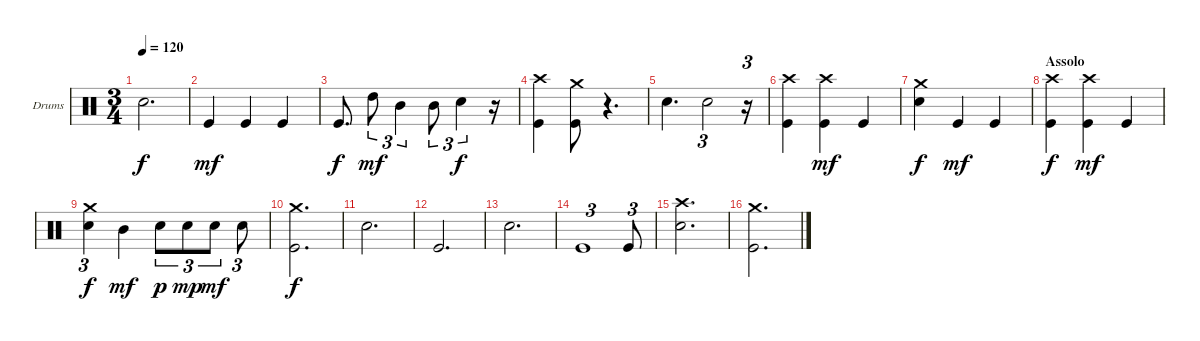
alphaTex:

\bracketExtendMode groupsimilarinstruments
\firstSystemTrackNameOrientation horizontal
\otherSystemsTrackNameOrientation horizontal
\track ("Drumkit" "Drums") {instrument percussion}
\staff {score}
\articulation defaults
\ts (3 4)
\tempo 120
\clef neutral
\ks c "Snare (hit) 2".2{d dy f}
|
"Kick (hit)".4{dy mf} "Kick (hit)".4 "Kick (hit)".4 |
"Kick (hit)".8{d dy f} "High Tom (hit)".8{tu (3 2) dy mf} "Mid Tom (hit)".4{tu (3 2)} "Mid Tom (hit)".8{tu (3 2)} "Snare (hit) 2".4{tu (3 2) dy f} r.16 |
("Crash high (hit)" "Kick (hit)").4 ("Crash medium (hit)" "Kick (hit)").8 r.4{d} |
"Snare (hit) 2".4{d} "Snare (hit) 2".2{tu (3 2)} r.16{tu (3 2)} |
("Crash high (hit)" "Kick (hit)").4 ("Crash high (hit)" "Kick (hit)").4{dy mf} "Kick (hit)".4 |
("Crash medium (hit)" "Snare (hit) 2").4{dy f} "Kick (hit)".4{dy mf} "Kick (hit)".4 |
\section ("" "Assolo")
("Crash high (hit)" "Kick (hit)").4{dy f} ("Crash high (hit)" "Kick (hit)").4{dy mf} "Kick (hit)".4 |
("Crash medium (hit)" "Snare (hit) 2").4{tu (3 2) dy f} "Mid Tom (hit)".4{dy mf} "Snare (hit) 2".8{tu (3 2) dy p} "Snare (hit) 2".8{tu (3 2) dy mp} "Snare (hit) 2".8{tu (3 2) dy mf} "Snare (hit) 2".8{tu (3 2)} |
("Crash medium (hit)" "Kick (hit)").2{d dy f} |
"Snare (hit) 2".2{d} |
"Kick (hit)".2{d} |
"Snare (hit) 2".2{d} |
"Kick (hit)".1{tu (3 2)} "Kick (hit)".8{tu (3 2)} |
("Crash high (hit)" "Snare (hit) 2").2{d} |
("Crash medium (hit)" "Kick (hit)").2{d}
